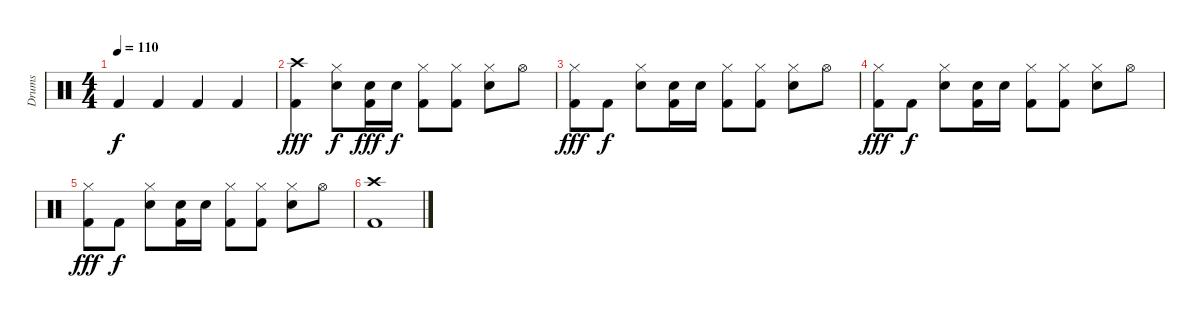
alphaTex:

\track ("Drums" "Drums") {instrument percussion}
\staff {score}
\articulation defaults
\ts (4 4)
\tempo 110
\clef neutral
\ks c "Kick (hit) 2".4{dy f} "Kick (hit) 2".4 "Kick (hit) 2".4 "Kick (hit) 2".4
|
("Crash high (hit)" "Kick (hit) 2").4{dy fff} ("Hi-Hat (closed)" "Snare (hit) 2").8{dy f} ("Snare (hit) 2" "Kick (hit) 2").16{dy fff} "Snare (hit) 2".16{dy f} ("Hi-Hat (closed)" "Kick (hit) 2").8 ("Hi-Hat (closed)" "Kick (hit) 2").8 ("Hi-Hat (closed)" "Snare (hit) 2").8 "Hi-Hat (open)".8 |
("Hi-Hat (closed)" "Kick (hit) 2").8{dy fff} "Kick (hit) 2".8{dy f} ("Hi-Hat (closed)" "Snare (hit) 2").8 ("Snare (hit) 2" "Kick (hit) 2").16 "Snare (hit) 2".16 ("Hi-Hat (closed)" "Kick (hit) 2").8 ("Hi-Hat (closed)" "Kick (hit) 2").8 ("Hi-Hat (closed)" "Snare (hit) 2").8 "Hi-Hat (open)".8 |
("Hi-Hat (closed)" "Kick (hit) 2").8{dy fff} "Kick (hit) 2".8{dy f} ("Hi-Hat (closed)" "Snare (hit) 2").8 ("Snare (hit) 2" "Kick (hit) 2").16 "Snare (hit) 2".16 ("Hi-Hat (closed)" "Kick (hit) 2").8 ("Hi-Hat (closed)" "Kick (hit) 2").8 ("Hi-Hat (closed)" "Snare (hit) 2").8 "Hi-Hat (open)".8 |
("Hi-Hat (closed)" "Kick (hit) 2").8{dy fff} "Kick (hit) 2".8{dy f} ("Hi-Hat (closed)" "Snare (hit) 2").8 ("Snare (hit) 2" "Kick (hit) 2").16 "Snare (hit) 2".16 ("Hi-Hat (closed)" "Kick (hit) 2").8 ("Hi-Hat (closed)" "Kick (hit) 2").8 ("Hi-Hat (closed)" "Snare (hit) 2").8 "Hi-Hat (open)".8 |
("Crash high (hit)" "Kick (hit) 2").1
